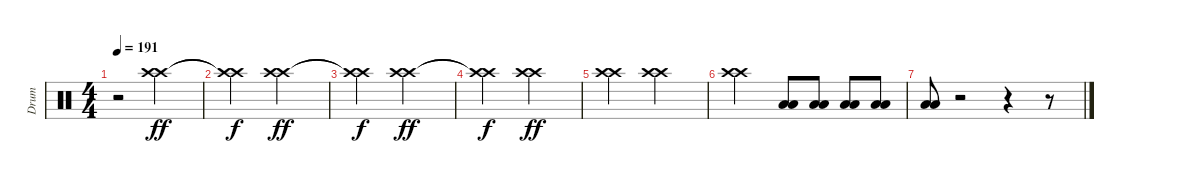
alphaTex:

\track ("Drum" "Drum") {instrument percussion}
\staff {score}
\articulation defaults
\ts (4 4)
\tempo 191
\clef neutral
\ks c
r.2{dy ff} ("Crash high (hit)" "Crash high (hit)").2 |
("Crash high (hit)"{t} "Crash high (hit)"{t}).2{dy f} ("Crash high (hit)" "Crash high (hit)").2{dy ff} |
("Crash high (hit)"{t} "Crash high (hit)"{t}).2{dy f} ("Crash high (hit)" "Crash high (hit)").2{dy ff} |
("Crash high (hit)"{t} "Crash high (hit)"{t}).2{dy f} ("Crash high (hit)" "Crash high (hit)").2{dy ff} |
("Crash high (hit)" "Crash high (hit)").2 ("Crash high (hit)" "Crash high (hit)").2 |
("Crash high (hit)" "Crash high (hit)").2 ("Low Floor Tom (hit)" "Low Floor Tom (hit)").8 ("Low Floor Tom (hit)" "Low Floor Tom (hit)").8 ("Low Floor Tom (hit)" "Low Floor Tom (hit)").8 ("Low Floor Tom (hit)" "Low Floor Tom (hit)").8 |
("Low Floor Tom (hit)" "Low Floor Tom (hit)").8 r.2 r.4 r.8
